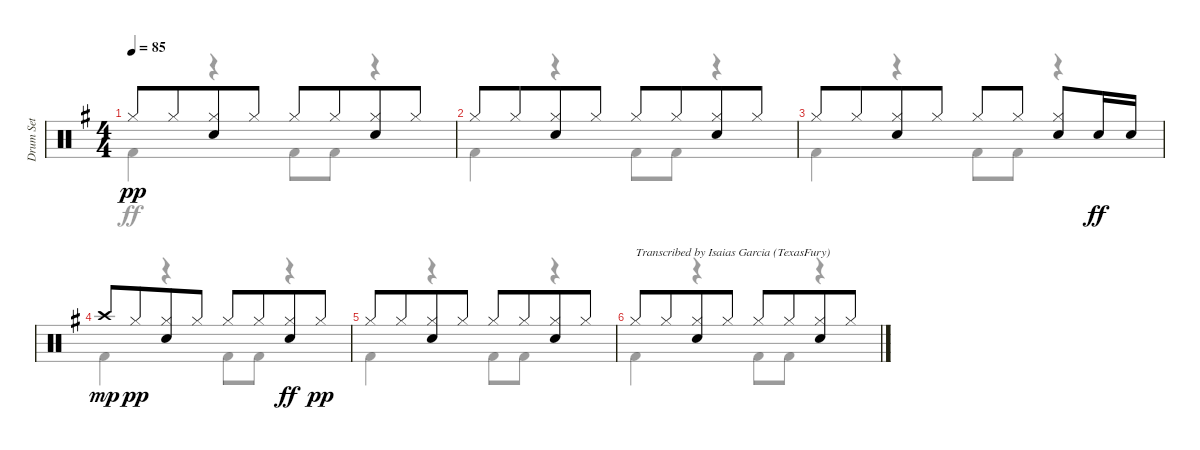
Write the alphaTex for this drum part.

\track ("Drum Set" "Drum Set") {instrument percussion}
\staff {score}
\articulation defaults
\voice
\ts (4 4)
\tempo 85
\clef neutral
\ks g "Hi-Hat (closed)".8{dy pp} "Hi-Hat (closed)".8{beam merge}
("Hi-Hat (closed)" "Electric Snare (hit)").8 "Hi-Hat (closed)".8 "Hi-Hat (closed)".8 "Hi-Hat (closed)".8{beam merge} ("Hi-Hat (closed)" "Electric Snare (hit)").8 "Hi-Hat (closed)".8 |
"Hi-Hat (closed)".8{volume 7} "Hi-Hat (closed)".8{beam merge} ("Hi-Hat (closed)" "Electric Snare (hit)").8 "Hi-Hat (closed)".8 "Hi-Hat (closed)".8 "Hi-Hat (closed)".8{beam merge} ("Hi-Hat (closed)" "Electric Snare (hit)").8 "Hi-Hat (closed)".8 |
"Hi-Hat (closed)".8 "Hi-Hat (closed)".8{beam merge} ("Hi-Hat (closed)" "Electric Snare (hit)").8 "Hi-Hat (closed)".8 "Hi-Hat (closed)".8 "Hi-Hat (closed)".8 ("Hi-Hat (closed)" "Electric Snare (hit)").8 "Electric Snare (hit)".16{dy ff} "Electric Snare (hit)".16 |
"Crash high (hit)".8{dy mp} "Hi-Hat (closed)".8{dy pp beam merge} ("Hi-Hat (closed)" "Electric Snare (hit)").8 "Hi-Hat (closed)".8 "Hi-Hat (closed)".8{volume 0} "Hi-Hat (closed)".8{beam merge} ("Hi-Hat (closed)" "Electric Snare (hit)").8{dy ff} "Hi-Hat (closed)".8{dy pp} |
"Hi-Hat (closed)".8 "Hi-Hat (closed)".8{beam merge} ("Hi-Hat (closed)" "Electric Snare (hit)").8 "Hi-Hat (closed)".8 "Hi-Hat (closed)".8 "Hi-Hat (closed)".8{beam merge} ("Hi-Hat (closed)" "Electric Snare (hit)").8 "Hi-Hat (closed)".8 |
"Hi-Hat (closed)".8{txt "Transcribed by Isaias Garcia (TexasFury)"} "Hi-Hat (closed)".8{beam merge} ("Hi-Hat (closed)" "Electric Snare (hit)").8 "Hi-Hat (closed)".8 "Hi-Hat (closed)".8 "Hi-Hat (closed)".8{beam merge} ("Hi-Hat (closed)" "Electric Snare (hit)").8 "Hi-Hat (closed)".8
\voice
\clef neutral
\ottava regular
\simile none
\ks g "Kick (hit) 2".4{dy ff}
r.4 "Kick (hit) 2".8 "Kick (hit) 2".8 r.4 |
"Kick (hit) 2".4 r.4 "Kick (hit) 2".8 "Kick (hit) 2".8 r.4 |
"Kick (hit) 2".4 r.4 "Kick (hit) 2".8 "Kick (hit) 2".8 r.4 |
"Kick (hit) 2".4 r.4 "Kick (hit) 2".8 "Kick (hit) 2".8 r.4 |
"Kick (hit) 2".4 r.4 "Kick (hit) 2".8 "Kick (hit) 2".8 r.4 |
"Kick (hit) 2".4 r.4 "Kick (hit) 2".8 "Kick (hit) 2".8 r.4
